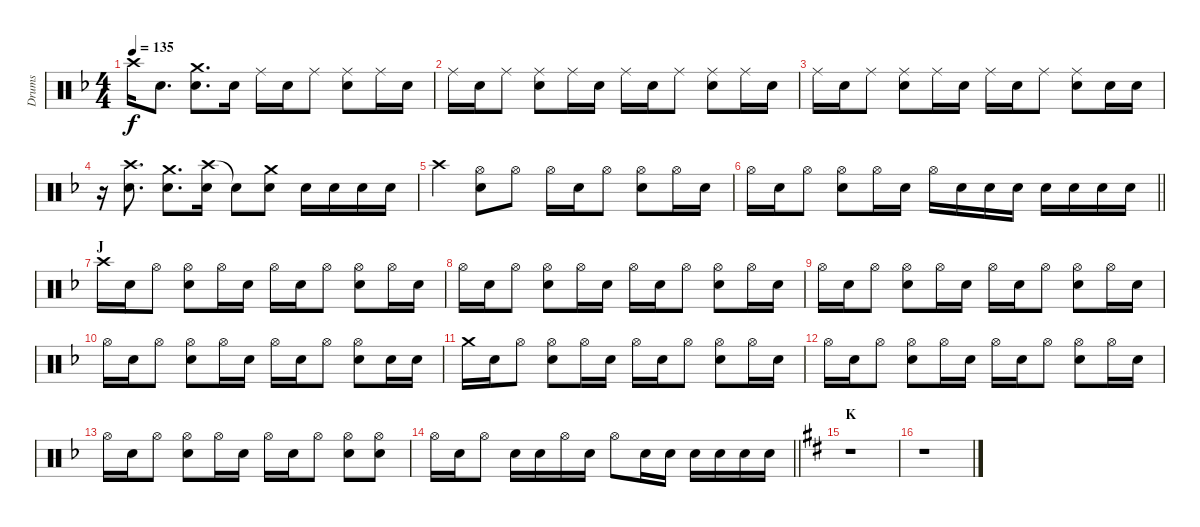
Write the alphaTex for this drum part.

\track ("Drums" "Drums") {instrument percussion}
\staff {score}
\articulation defaults
\ts (4 4)
\tempo 135
\clef neutral
\ks f "Crash high (hit)".16{dy f} "Snare (hit) 2".8{d}
("Crash medium (hit)" "Snare (hit) 2").8{d} "Snare (hit) 2".16 "Ride (middle)".16 "Snare (hit) 2".16 "Ride (middle)".8 ("Snare (hit) 2" "Ride (middle)").8 "Ride (middle)".16 "Snare (hit) 2".16 |
"Ride (middle)".16 "Snare (hit) 2".16 "Ride (middle)".8 ("Ride (middle)" "Snare (hit) 2").8 "Ride (middle)".16 "Snare (hit) 2".16 "Ride (middle)".16 "Snare (hit) 2".16 "Ride (middle)".8 ("Ride (middle)" "Snare (hit) 2").8 "Ride (middle)".16 "Snare (hit) 2".16 |
"Ride (middle)".16 "Snare (hit) 2".16 "Ride (middle)".8 ("Ride (middle)" "Snare (hit) 2").8 "Ride (middle)".16 "Snare (hit) 2".16 "Ride (middle)".16 "Snare (hit) 2".16 "Ride (middle)".8 ("Ride (middle)" "Snare (hit) 2").8 "Snare (hit) 2".16 "Snare (hit) 2".16 |
r.16 ("Crash high (hit)" "Snare (hit) 2").8{d} ("Crash medium (hit)" "Snare (hit) 2").8{d} ("Crash high (hit)" "Snare (hit) 2").16 "Snare (hit)"{t}.8 ("Crash medium (hit)" "Snare (hit) 2").8 "Snare (hit) 2".16 "Snare (hit) 2".16 "Snare (hit) 2".16 "Snare (hit) 2".16 |
"Crash high (hit)".4 ("Hi-Hat (open)" "Snare (hit) 2").8 "Hi-Hat (open)".8 "Hi-Hat (open)".16 "Snare (hit) 2".16 "Hi-Hat (open)".8 ("Hi-Hat (open)" "Snare (hit) 2").8 "Hi-Hat (open)".16 "Snare (hit) 2".16 |
\barLineRight lightlight "Hi-Hat (open)".16 "Snare (hit) 2".16 "Hi-Hat (open)".8
("Hi-Hat (open)" "Snare (hit) 2").8 "Hi-Hat (open)".16 "Snare (hit) 2".16 "Hi-Hat (open)".16 "Snare (hit) 2".16 "Snare (hit) 2".16 "Snare (hit) 2".16 "Snare (hit) 2".16 "Snare (hit) 2".16 "Snare (hit) 2".16 "Snare (hit) 2".16 |
\section ("" "J")
"Crash high (hit)".16 "Snare (hit) 2".16 "Hi-Hat (open)".8 ("Hi-Hat (open)" "Snare (hit) 2").8 "Hi-Hat (open)".16 "Snare (hit) 2".16 "Hi-Hat (open)".16 "Snare (hit) 2".16 "Hi-Hat (open)".8 ("Hi-Hat (open)" "Snare (hit) 2").8 "Hi-Hat (open)".16 "Snare (hit) 2".16 |
"Hi-Hat (open)".16 "Snare (hit) 2".16 "Hi-Hat (open)".8 ("Hi-Hat (open)" "Snare (hit) 2").8 "Hi-Hat (open)".16 "Snare (hit) 2".16 "Hi-Hat (open)".16 "Snare (hit) 2".16 "Hi-Hat (open)".8 ("Hi-Hat (open)" "Snare (hit) 2").8 "Hi-Hat (open)".16 "Snare (hit) 2".16 |
"Hi-Hat (open)".16 "Snare (hit) 2".16 "Hi-Hat (open)".8 ("Hi-Hat (open)" "Snare (hit) 2").8 "Hi-Hat (open)".16 "Snare (hit) 2".16 "Hi-Hat (open)".16 "Snare (hit) 2".16 "Hi-Hat (open)".8 ("Hi-Hat (open)" "Snare (hit) 2").8 "Hi-Hat (open)".16 "Snare (hit) 2".16 |
"Hi-Hat (open)".16 "Snare (hit) 2".16 "Hi-Hat (open)".8 ("Hi-Hat (open)" "Snare (hit) 2").8 "Hi-Hat (open)".16 "Snare (hit) 2".16 "Hi-Hat (open)".16 "Snare (hit) 2".16 "Hi-Hat (open)".8 ("Hi-Hat (open)" "Snare (hit) 2").8 "Snare (hit) 2".16 "Snare (hit) 2".16 |
"Crash medium (hit)".16 "Snare (hit) 2".16 "Hi-Hat (open)".8 ("Hi-Hat (open)" "Snare (hit) 2").8 "Hi-Hat (open)".16 "Snare (hit) 2".16 "Hi-Hat (open)".16 "Snare (hit) 2".16 "Hi-Hat (open)".8 ("Hi-Hat (open)" "Snare (hit) 2").8 "Hi-Hat (open)".16 "Snare (hit) 2".16 |
"Hi-Hat (open)".16 "Snare (hit) 2".16 "Hi-Hat (open)".8 ("Hi-Hat (open)" "Snare (hit) 2").8 "Hi-Hat (open)".16 "Snare (hit) 2".16 "Hi-Hat (open)".16 "Snare (hit) 2".16 "Hi-Hat (open)".8 ("Hi-Hat (open)" "Snare (hit) 2").8 "Hi-Hat (open)".16 "Snare (hit) 2".16 |
"Hi-Hat (open)".16 "Snare (hit) 2".16 "Hi-Hat (open)".8 ("Hi-Hat (open)" "Snare (hit) 2").8 "Hi-Hat (open)".16 "Snare (hit) 2".16 "Hi-Hat (open)".16 "Snare (hit) 2".16 "Hi-Hat (open)".8 ("Hi-Hat (open)" "Snare (hit) 2").8 ("Hi-Hat (open)" "Snare (hit) 2").8 |
\barLineRight lightlight "Hi-Hat (open)".16 "Snare (hit) 2".16 "Hi-Hat (open)".8 "Snare (hit) 2".16 "Snare (hit) 2".16 "Hi-Hat (open)".16 "Snare (hit) 2".16 "Hi-Hat (open)".8 "Snare (hit) 2".16 "Snare (hit) 2".16 "Snare (hit) 2".16 "Snare (hit) 2".16 "Snare (hit) 2".16 "Snare (hit) 2".16
|
\section ("" "K")
\ks d
r.1 |
r.1
